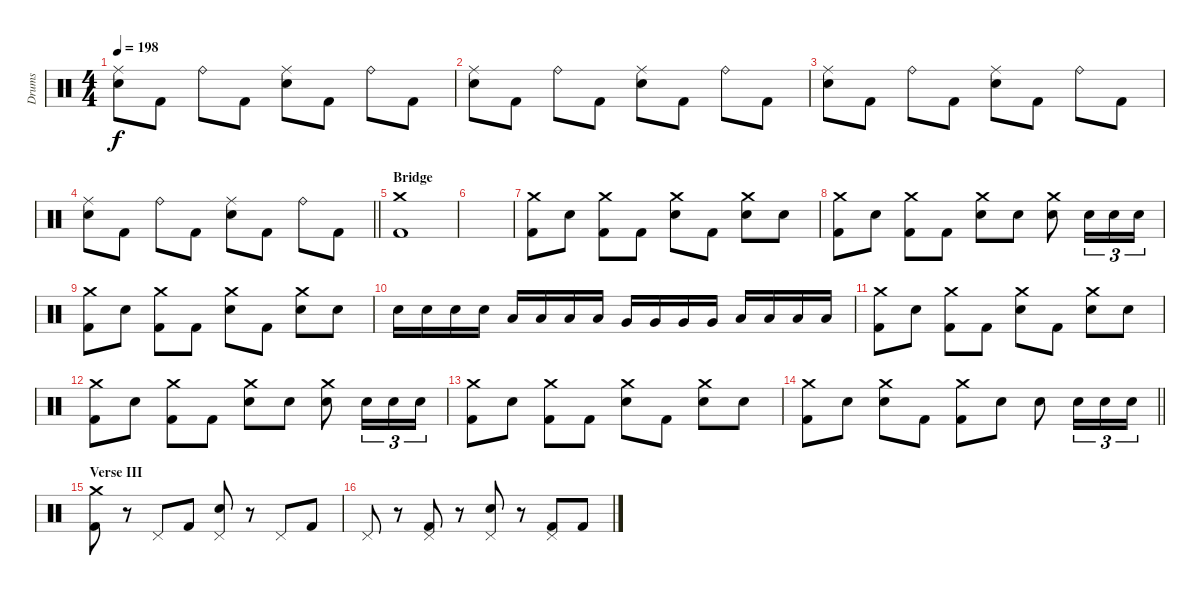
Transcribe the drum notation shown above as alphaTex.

\track ("Drums" "Drums") {instrument percussion}
\staff {score}
\articulation defaults
\ts (4 4)
\tempo 198
\clef neutral
\ks c
("Ride (middle)" "Electric Snare (hit)").8{dy f} "Kick (hit) 2".8 "Ride (bell)".8 "Kick (hit) 2".8 ("Ride (middle)" "Electric Snare (hit)").8 "Kick (hit) 2".8 "Ride (bell)".8 "Kick (hit) 2".8 |
("Ride (middle)" "Electric Snare (hit)").8 "Kick (hit) 2".8 "Ride (bell)".8 "Kick (hit) 2".8 ("Ride (middle)" "Electric Snare (hit)").8 "Kick (hit) 2".8 "Ride (bell)".8 "Kick (hit) 2".8 |
("Ride (middle)" "Electric Snare (hit)").8 "Kick (hit) 2".8 "Ride (bell)".8 "Kick (hit) 2".8 ("Ride (middle)" "Electric Snare (hit)").8 "Kick (hit) 2".8 "Ride (bell)".8 "Kick (hit) 2".8 |
\barLineRight lightlight
("Ride (middle)" "Electric Snare (hit)").8 "Kick (hit) 2".8 "Ride (bell)".8 "Kick (hit) 2".8 ("Ride (middle)" "Electric Snare (hit)").8 "Kick (hit) 2".8 "Ride (bell)".8 "Kick (hit) 2".8 |
\section ("" "Bridge")
("Crash medium (hit)" "Kick (hit) 2").1 |
|
("Crash medium (hit)" "Kick (hit) 2").8 "Electric Snare (hit)".8 ("Crash medium (hit)" "Kick (hit) 2").8 "Kick (hit) 2".8 ("Crash medium (hit)" "Electric Snare (hit)").8 "Kick (hit) 2".8 ("Crash medium (hit)" "Electric Snare (hit)").8 "Electric Snare (hit)".8 |
("Crash medium (hit)" "Kick (hit) 2").8 "Electric Snare (hit)".8 ("Crash medium (hit)" "Kick (hit) 2").8 "Kick (hit) 2".8 ("Crash medium (hit)" "Electric Snare (hit)").8 "Electric Snare (hit)".8 ("Crash medium (hit)" "Electric Snare (hit)").8 "Electric Snare (hit)".16{tu (3 2)} "Electric Snare (hit)".16{tu (3 2)} "Electric Snare (hit)".16{tu (3 2)} |
("Crash medium (hit)" "Kick (hit) 2").8 "Electric Snare (hit)".8 ("Crash medium (hit)" "Kick (hit) 2").8 "Kick (hit) 2".8 ("Crash medium (hit)" "Electric Snare (hit)").8 "Kick (hit) 2".8 ("Crash medium (hit)" "Electric Snare (hit)").8 "Electric Snare (hit)".8 |
"Electric Snare (hit)".16 "Electric Snare (hit)".16 "Electric Snare (hit)".16 "Electric Snare (hit)".16 "Low Tom (hit)".16 "Low Tom (hit)".16 "Low Tom (hit)".16 "Low Tom (hit)".16 "Very Low Tom (hit)".16 "Very Low Tom (hit)".16 "Very Low Tom (hit)".16 "Very Low Tom (hit)".16 "Low Floor Tom (hit)".16 "Low Floor Tom (hit)".16 "Low Floor Tom (hit)".16 "Low Floor Tom (hit)".16 |
("Crash medium (hit)" "Kick (hit) 2").8 "Electric Snare (hit)".8 ("Crash medium (hit)" "Kick (hit) 2").8 "Kick (hit) 2".8 ("Crash medium (hit)" "Electric Snare (hit)").8 "Kick (hit) 2".8 ("Crash medium (hit)" "Electric Snare (hit)").8 "Electric Snare (hit)".8 |
("Crash medium (hit)" "Kick (hit) 2").8 "Electric Snare (hit)".8 ("Crash medium (hit)" "Kick (hit) 2").8 "Kick (hit) 2".8 ("Crash medium (hit)" "Electric Snare (hit)").8 "Electric Snare (hit)".8 ("Crash medium (hit)" "Electric Snare (hit)").8 "Electric Snare (hit)".16{tu (3 2)} "Electric Snare (hit)".16{tu (3 2)} "Electric Snare (hit)".16{tu (3 2)} |
("Crash medium (hit)" "Kick (hit) 2").8 "Electric Snare (hit)".8 ("Crash medium (hit)" "Kick (hit) 2").8 "Kick (hit) 2".8 ("Crash medium (hit)" "Electric Snare (hit)").8 "Kick (hit) 2".8 ("Crash medium (hit)" "Electric Snare (hit)").8 "Electric Snare (hit)".8 |
\barLineRight lightlight
("Crash medium (hit)" "Kick (hit) 2").8 "Electric Snare (hit)".8 ("Crash medium (hit)" "Electric Snare (hit)").8 "Kick (hit) 2".8 ("Crash medium (hit)" "Kick (hit) 2").8 "Electric Snare (hit)".8 "Electric Snare (hit)".8 "Electric Snare (hit)".16{tu (3 2)} "Electric Snare (hit)".16{tu (3 2)} "Electric Snare (hit)".16{tu (3 2)} |
\section ("" "Verse III")
("Crash medium (hit)" "Kick (hit) 2").8 r.8 "Pedal Hi-Hat (hit)".8 "Kick (hit) 2".8 ("Pedal Hi-Hat (hit)" "Electric Snare (hit)").8 r.8 "Pedal Hi-Hat (hit)".8 "Kick (hit) 2".8 |
"Pedal Hi-Hat (hit)".8 r.8 ("Pedal Hi-Hat (hit)" "Kick (hit) 2").8 r.8 ("Pedal Hi-Hat (hit)" "Electric Snare (hit)").8 r.8 ("Pedal Hi-Hat (hit)" "Kick (hit) 2").8 "Kick (hit) 2".8
